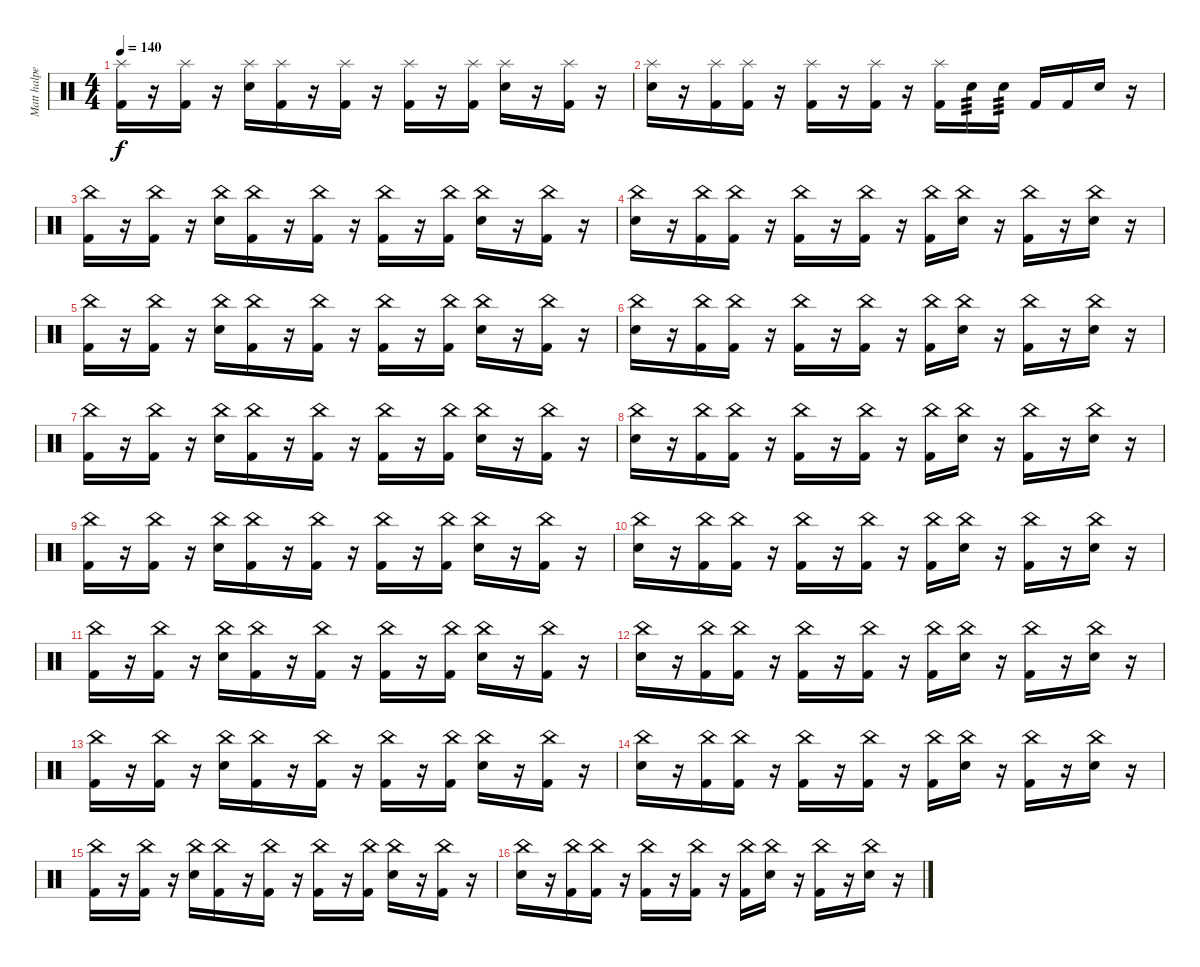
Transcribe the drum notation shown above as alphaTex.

\track ("Matt halpern" "Matt halpe") {instrument percussion}
\staff {score}
\articulation defaults
\ts (4 4)
\tempo 140
\clef neutral
\ks c
("Splash (hit)" "Kick (hit) 2").16{dy f} r.16 ("Splash (hit)" "Kick (hit) 2").16 r.16 ("Splash (hit)" "Electric Snare (hit)").16 ("Splash (hit)" "Kick (hit) 2").16 r.16 ("Splash (hit)" "Kick (hit) 2").16 r.16 ("Splash (hit)" "Kick (hit) 2").16 r.16 ("Splash (hit)" "Kick (hit) 2").16 ("Splash (hit)" "Electric Snare (hit)").16 r.16 ("Splash (hit)" "Kick (hit) 2").16 r.16 |
("Splash (hit)" "Electric Snare (hit)").16 r.16 ("Splash (hit)" "Kick (hit) 2").16 ("Splash (hit)" "Kick (hit) 2").16 r.16 ("Splash (hit)" "Kick (hit) 2").16 r.16 ("Splash (hit)" "Kick (hit) 2").16 r.16 ("Splash (hit)" "Kick (hit) 2").16 "Electric Snare (hit)".16{tp 3} "Electric Snare (hit)".16{tp 3} "Kick (hit) 2".16 "Kick (hit) 2".16 "Electric Snare (hit)".16 r.16 |
("China (hit)" "Kick (hit) 2").16 r.16 ("China (hit)" "Kick (hit) 2").16 r.16 ("China (hit)" "Electric Snare (hit)").16 ("China (hit)" "Kick (hit) 2").16 r.16 ("China (hit)" "Kick (hit) 2").16 r.16 ("China (hit)" "Kick (hit) 2").16 r.16 ("China (hit)" "Kick (hit) 2").16 ("China (hit)" "Electric Snare (hit)").16 r.16 ("China (hit)" "Kick (hit) 2").16 r.16 |
("China (hit)" "Electric Snare (hit)").16 r.16 ("China (hit)" "Kick (hit) 2").16 ("China (hit)" "Kick (hit) 2").16 r.16 ("China (hit)" "Kick (hit) 2").16 r.16 ("China (hit)" "Kick (hit) 2").16 r.16 ("China (hit)" "Kick (hit) 2").16 ("China (hit)" "Electric Snare (hit)").16 r.16 ("China (hit)" "Kick (hit) 2").16 r.16 ("China (hit)" "Electric Snare (hit)").16 r.16 |
("China (hit)" "Kick (hit) 2").16 r.16 ("China (hit)" "Kick (hit) 2").16 r.16 ("China (hit)" "Electric Snare (hit)").16 ("China (hit)" "Kick (hit) 2").16 r.16 ("China (hit)" "Kick (hit) 2").16 r.16 ("China (hit)" "Kick (hit) 2").16 r.16 ("China (hit)" "Kick (hit) 2").16 ("China (hit)" "Electric Snare (hit)").16 r.16 ("China (hit)" "Kick (hit) 2").16 r.16 |
("China (hit)" "Electric Snare (hit)").16 r.16 ("China (hit)" "Kick (hit) 2").16 ("China (hit)" "Kick (hit) 2").16 r.16 ("China (hit)" "Kick (hit) 2").16 r.16 ("China (hit)" "Kick (hit) 2").16 r.16 ("China (hit)" "Kick (hit) 2").16 ("China (hit)" "Electric Snare (hit)").16 r.16 ("China (hit)" "Kick (hit) 2").16 r.16 ("China (hit)" "Electric Snare (hit)").16 r.16 |
("China (hit)" "Kick (hit) 2").16 r.16 ("China (hit)" "Kick (hit) 2").16 r.16 ("China (hit)" "Electric Snare (hit)").16 ("China (hit)" "Kick (hit) 2").16 r.16 ("China (hit)" "Kick (hit) 2").16 r.16 ("China (hit)" "Kick (hit) 2").16 r.16 ("China (hit)" "Kick (hit) 2").16 ("China (hit)" "Electric Snare (hit)").16 r.16 ("China (hit)" "Kick (hit) 2").16 r.16 |
("China (hit)" "Electric Snare (hit)").16 r.16 ("China (hit)" "Kick (hit) 2").16 ("China (hit)" "Kick (hit) 2").16 r.16 ("China (hit)" "Kick (hit) 2").16 r.16 ("China (hit)" "Kick (hit) 2").16 r.16 ("China (hit)" "Kick (hit) 2").16 ("China (hit)" "Electric Snare (hit)").16 r.16 ("China (hit)" "Kick (hit) 2").16 r.16 ("China (hit)" "Electric Snare (hit)").16 r.16 |
("China (hit)" "Kick (hit) 2").16 r.16 ("China (hit)" "Kick (hit) 2").16 r.16 ("China (hit)" "Electric Snare (hit)").16 ("China (hit)" "Kick (hit) 2").16 r.16 ("China (hit)" "Kick (hit) 2").16 r.16 ("China (hit)" "Kick (hit) 2").16 r.16 ("China (hit)" "Kick (hit) 2").16 ("China (hit)" "Electric Snare (hit)").16 r.16 ("China (hit)" "Kick (hit) 2").16 r.16 |
("China (hit)" "Electric Snare (hit)").16 r.16 ("China (hit)" "Kick (hit) 2").16 ("China (hit)" "Kick (hit) 2").16 r.16 ("China (hit)" "Kick (hit) 2").16 r.16 ("China (hit)" "Kick (hit) 2").16 r.16 ("China (hit)" "Kick (hit) 2").16 ("China (hit)" "Electric Snare (hit)").16 r.16 ("China (hit)" "Kick (hit) 2").16 r.16 ("China (hit)" "Electric Snare (hit)").16 r.16 |
("China (hit)" "Kick (hit) 2").16 r.16 ("China (hit)" "Kick (hit) 2").16 r.16 ("China (hit)" "Electric Snare (hit)").16 ("China (hit)" "Kick (hit) 2").16 r.16 ("China (hit)" "Kick (hit) 2").16 r.16 ("China (hit)" "Kick (hit) 2").16 r.16 ("China (hit)" "Kick (hit) 2").16 ("China (hit)" "Electric Snare (hit)").16 r.16 ("China (hit)" "Kick (hit) 2").16 r.16 |
("China (hit)" "Electric Snare (hit)").16 r.16 ("China (hit)" "Kick (hit) 2").16 ("China (hit)" "Kick (hit) 2").16 r.16 ("China (hit)" "Kick (hit) 2").16 r.16 ("China (hit)" "Kick (hit) 2").16 r.16 ("China (hit)" "Kick (hit) 2").16 ("China (hit)" "Electric Snare (hit)").16 r.16 ("China (hit)" "Kick (hit) 2").16 r.16 ("China (hit)" "Electric Snare (hit)").16 r.16 |
("China (hit)" "Kick (hit) 2").16 r.16 ("China (hit)" "Kick (hit) 2").16 r.16 ("China (hit)" "Electric Snare (hit)").16 ("China (hit)" "Kick (hit) 2").16 r.16 ("China (hit)" "Kick (hit) 2").16 r.16 ("China (hit)" "Kick (hit) 2").16 r.16 ("China (hit)" "Kick (hit) 2").16 ("China (hit)" "Electric Snare (hit)").16 r.16 ("China (hit)" "Kick (hit) 2").16 r.16 |
("China (hit)" "Electric Snare (hit)").16 r.16 ("China (hit)" "Kick (hit) 2").16 ("China (hit)" "Kick (hit) 2").16 r.16 ("China (hit)" "Kick (hit) 2").16 r.16 ("China (hit)" "Kick (hit) 2").16 r.16 ("China (hit)" "Kick (hit) 2").16 ("China (hit)" "Electric Snare (hit)").16 r.16 ("China (hit)" "Kick (hit) 2").16 r.16 ("China (hit)" "Electric Snare (hit)").16 r.16 |
("China (hit)" "Kick (hit) 2").16 r.16 ("China (hit)" "Kick (hit) 2").16 r.16 ("China (hit)" "Electric Snare (hit)").16 ("China (hit)" "Kick (hit) 2").16 r.16 ("China (hit)" "Kick (hit) 2").16 r.16 ("China (hit)" "Kick (hit) 2").16 r.16 ("China (hit)" "Kick (hit) 2").16 ("China (hit)" "Electric Snare (hit)").16 r.16 ("China (hit)" "Kick (hit) 2").16 r.16 |
("China (hit)" "Electric Snare (hit)").16 r.16 ("China (hit)" "Kick (hit) 2").16 ("China (hit)" "Kick (hit) 2").16 r.16 ("China (hit)" "Kick (hit) 2").16 r.16 ("China (hit)" "Kick (hit) 2").16 r.16 ("China (hit)" "Kick (hit) 2").16 ("China (hit)" "Electric Snare (hit)").16 r.16 ("China (hit)" "Kick (hit) 2").16 r.16 ("China (hit)" "Electric Snare (hit)").16 r.16
